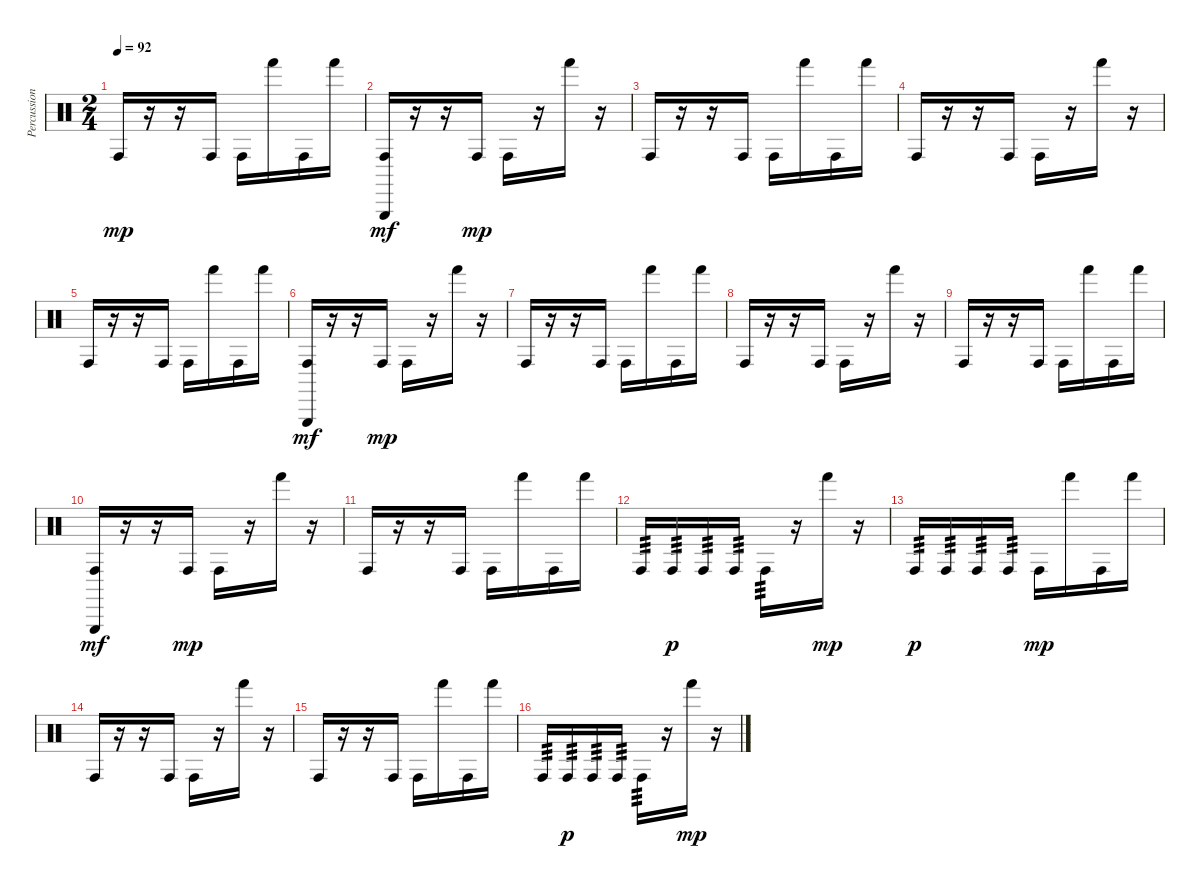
\track ("Percussions" "Percussion") {instrument percussion}
\staff {score}
\articulation defaults
\ts (2 4)
\tempo 92
\clef neutral
\ks c "Conga high (hit)".16{dy mp}
r.16 r.16 "Conga high (hit)".16 "Conga high (hit)".16 "Hand (hit)".16 "Conga high (hit)".16 "Hand (hit)".16 |
("Conga high (hit)" "Triangle (hit)").16{dy mf} r.16 r.16 "Conga high (hit)".16{dy mp} "Conga high (hit)".16 r.16 "Hand (hit)".16 r.16 |
"Conga high (hit)".16 r.16 r.16 "Conga high (hit)".16 "Conga high (hit)".16 "Hand (hit)".16 "Conga high (hit)".16 "Hand (hit)".16 |
"Conga high (hit)".16 r.16 r.16 "Conga high (hit)".16 "Conga high (hit)".16 r.16 "Hand (hit)".16 r.16 |
"Conga high (hit)".16 r.16 r.16 "Conga high (hit)".16 "Conga high (hit)".16 "Hand (hit)".16 "Conga high (hit)".16 "Hand (hit)".16 |
("Conga high (hit)" "Triangle (hit)").16{dy mf} r.16 r.16 "Conga high (hit)".16{dy mp} "Conga high (hit)".16 r.16 "Hand (hit)".16 r.16 |
"Conga high (hit)".16 r.16 r.16 "Conga high (hit)".16 "Conga high (hit)".16 "Hand (hit)".16 "Conga high (hit)".16 "Hand (hit)".16 |
"Conga high (hit)".16 r.16 r.16 "Conga high (hit)".16 "Conga high (hit)".16 r.16 "Hand (hit)".16 r.16 |
"Conga high (hit)".16 r.16 r.16 "Conga high (hit)".16 "Conga high (hit)".16 "Hand (hit)".16 "Conga high (hit)".16 "Hand (hit)".16 |
("Conga high (hit)" "Triangle (hit)").16{dy mf} r.16 r.16 "Conga high (hit)".16{dy mp} "Conga high (hit)".16 r.16 "Hand (hit)".16 r.16 |
"Conga high (hit)".16 r.16 r.16 "Conga high (hit)".16 "Conga high (hit)".16 "Hand (hit)".16 "Conga high (hit)".16 "Hand (hit)".16 |
"Conga high (hit)".16{tp 3} "Conga high (hit)".16{tp 3 dy p} "Conga high (hit)".16{tp 3} "Conga high (hit)".16{tp 3} "Conga high (hit)".16{tp 3} r.16 "Hand (hit)".16{dy mp} r.16 |
"Conga high (hit)".16{tp 3 dy p} "Conga high (hit)".16{tp 3} "Conga high (hit)".16{tp 3} "Conga high (hit)".16{tp 3} "Conga high (hit)".16{dy mp} "Hand (hit)".16 "Conga high (hit)".16 "Hand (hit)".16 |
"Conga high (hit)".16 r.16 r.16 "Conga high (hit)".16 "Conga high (hit)".16 r.16 "Hand (hit)".16 r.16 |
"Conga high (hit)".16 r.16 r.16 "Conga high (hit)".16 "Conga high (hit)".16 "Hand (hit)".16 "Conga high (hit)".16 "Hand (hit)".16 |
"Conga high (hit)".16{tp 3} "Conga high (hit)".16{tp 3 dy p} "Conga high (hit)".16{tp 3} "Conga high (hit)".16{tp 3} "Conga high (hit)".16{tp 3} r.16 "Hand (hit)".16{dy mp} r.16
